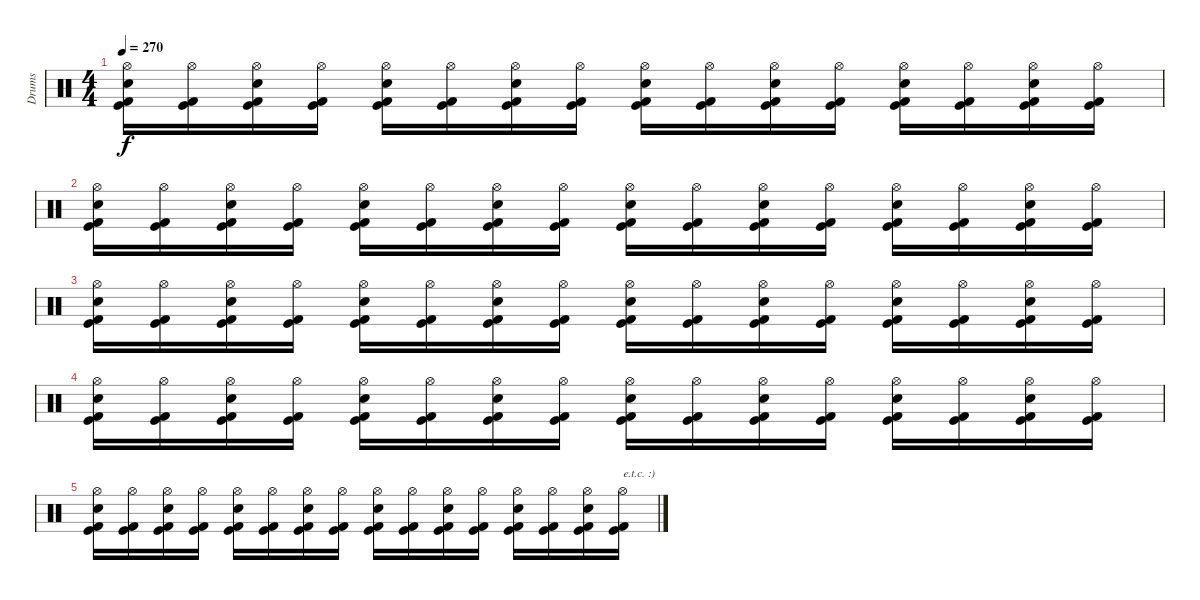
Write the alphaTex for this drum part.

\track ("Drums" "Drums") {instrument percussion}
\staff {score}
\articulation defaults
\ts (4 4)
\tempo 270
\clef neutral
\ks c
("Hi-Hat (open)" "Electric Snare (hit)" "Kick (hit)" "Kick (hit) 2").16{dy f} ("Hi-Hat (open)" "Kick (hit)" "Kick (hit) 2").16 ("Hi-Hat (open)" "Electric Snare (hit)" "Kick (hit)" "Kick (hit) 2").16 ("Hi-Hat (open)" "Kick (hit)" "Kick (hit) 2").16 ("Hi-Hat (open)" "Electric Snare (hit)" "Kick (hit)" "Kick (hit) 2").16 ("Hi-Hat (open)" "Kick (hit)" "Kick (hit) 2").16 ("Hi-Hat (open)" "Electric Snare (hit)" "Kick (hit)" "Kick (hit) 2").16 ("Hi-Hat (open)" "Kick (hit)" "Kick (hit) 2").16 ("Hi-Hat (open)" "Electric Snare (hit)" "Kick (hit)" "Kick (hit) 2").16 ("Hi-Hat (open)" "Kick (hit)" "Kick (hit) 2").16 ("Hi-Hat (open)" "Electric Snare (hit)" "Kick (hit)" "Kick (hit) 2").16 ("Hi-Hat (open)" "Kick (hit)" "Kick (hit) 2").16 ("Hi-Hat (open)" "Electric Snare (hit)" "Kick (hit)" "Kick (hit) 2").16 ("Hi-Hat (open)" "Kick (hit)" "Kick (hit) 2").16 ("Hi-Hat (open)" "Electric Snare (hit)" "Kick (hit)" "Kick (hit) 2").16 ("Hi-Hat (open)" "Kick (hit)" "Kick (hit) 2").16 |
("Hi-Hat (open)" "Electric Snare (hit)" "Kick (hit)" "Kick (hit) 2").16 ("Hi-Hat (open)" "Kick (hit)" "Kick (hit) 2").16 ("Hi-Hat (open)" "Electric Snare (hit)" "Kick (hit)" "Kick (hit) 2").16 ("Hi-Hat (open)" "Kick (hit)" "Kick (hit) 2").16 ("Hi-Hat (open)" "Electric Snare (hit)" "Kick (hit)" "Kick (hit) 2").16 ("Hi-Hat (open)" "Kick (hit)" "Kick (hit) 2").16 ("Hi-Hat (open)" "Electric Snare (hit)" "Kick (hit)" "Kick (hit) 2").16 ("Hi-Hat (open)" "Kick (hit)" "Kick (hit) 2").16 ("Hi-Hat (open)" "Electric Snare (hit)" "Kick (hit)" "Kick (hit) 2").16 ("Hi-Hat (open)" "Kick (hit)" "Kick (hit) 2").16 ("Hi-Hat (open)" "Electric Snare (hit)" "Kick (hit)" "Kick (hit) 2").16 ("Hi-Hat (open)" "Kick (hit)" "Kick (hit) 2").16 ("Hi-Hat (open)" "Electric Snare (hit)" "Kick (hit)" "Kick (hit) 2").16 ("Hi-Hat (open)" "Kick (hit)" "Kick (hit) 2").16 ("Hi-Hat (open)" "Electric Snare (hit)" "Kick (hit)" "Kick (hit) 2").16 ("Hi-Hat (open)" "Kick (hit)" "Kick (hit) 2").16 |
("Hi-Hat (open)" "Electric Snare (hit)" "Kick (hit)" "Kick (hit) 2").16 ("Hi-Hat (open)" "Kick (hit)" "Kick (hit) 2").16 ("Hi-Hat (open)" "Electric Snare (hit)" "Kick (hit)" "Kick (hit) 2").16 ("Hi-Hat (open)" "Kick (hit)" "Kick (hit) 2").16 ("Hi-Hat (open)" "Electric Snare (hit)" "Kick (hit)" "Kick (hit) 2").16 ("Hi-Hat (open)" "Kick (hit)" "Kick (hit) 2").16 ("Hi-Hat (open)" "Electric Snare (hit)" "Kick (hit)" "Kick (hit) 2").16 ("Hi-Hat (open)" "Kick (hit)" "Kick (hit) 2").16 ("Hi-Hat (open)" "Electric Snare (hit)" "Kick (hit)" "Kick (hit) 2").16 ("Hi-Hat (open)" "Kick (hit)" "Kick (hit) 2").16 ("Hi-Hat (open)" "Electric Snare (hit)" "Kick (hit)" "Kick (hit) 2").16 ("Hi-Hat (open)" "Kick (hit)" "Kick (hit) 2").16 ("Hi-Hat (open)" "Electric Snare (hit)" "Kick (hit)" "Kick (hit) 2").16 ("Hi-Hat (open)" "Kick (hit)" "Kick (hit) 2").16 ("Hi-Hat (open)" "Electric Snare (hit)" "Kick (hit)" "Kick (hit) 2").16 ("Hi-Hat (open)" "Kick (hit)" "Kick (hit) 2").16 |
("Hi-Hat (open)" "Electric Snare (hit)" "Kick (hit)" "Kick (hit) 2").16 ("Hi-Hat (open)" "Kick (hit)" "Kick (hit) 2").16 ("Hi-Hat (open)" "Electric Snare (hit)" "Kick (hit)" "Kick (hit) 2").16 ("Hi-Hat (open)" "Kick (hit)" "Kick (hit) 2").16 ("Hi-Hat (open)" "Electric Snare (hit)" "Kick (hit)" "Kick (hit) 2").16 ("Hi-Hat (open)" "Kick (hit)" "Kick (hit) 2").16 ("Hi-Hat (open)" "Electric Snare (hit)" "Kick (hit)" "Kick (hit) 2").16 ("Hi-Hat (open)" "Kick (hit)" "Kick (hit) 2").16 ("Hi-Hat (open)" "Electric Snare (hit)" "Kick (hit)" "Kick (hit) 2").16 ("Hi-Hat (open)" "Kick (hit)" "Kick (hit) 2").16 ("Hi-Hat (open)" "Electric Snare (hit)" "Kick (hit)" "Kick (hit) 2").16 ("Hi-Hat (open)" "Kick (hit)" "Kick (hit) 2").16 ("Hi-Hat (open)" "Electric Snare (hit)" "Kick (hit)" "Kick (hit) 2").16 ("Hi-Hat (open)" "Kick (hit)" "Kick (hit) 2").16 ("Hi-Hat (open)" "Electric Snare (hit)" "Kick (hit)" "Kick (hit) 2").16 ("Hi-Hat (open)" "Kick (hit)" "Kick (hit) 2").16 |
("Hi-Hat (open)" "Electric Snare (hit)" "Kick (hit)" "Kick (hit) 2").16 ("Hi-Hat (open)" "Kick (hit)" "Kick (hit) 2").16 ("Hi-Hat (open)" "Electric Snare (hit)" "Kick (hit)" "Kick (hit) 2").16 ("Hi-Hat (open)" "Kick (hit)" "Kick (hit) 2").16 ("Hi-Hat (open)" "Electric Snare (hit)" "Kick (hit)" "Kick (hit) 2").16 ("Hi-Hat (open)" "Kick (hit)" "Kick (hit) 2").16 ("Hi-Hat (open)" "Electric Snare (hit)" "Kick (hit)" "Kick (hit) 2").16 ("Hi-Hat (open)" "Kick (hit)" "Kick (hit) 2").16 ("Hi-Hat (open)" "Electric Snare (hit)" "Kick (hit)" "Kick (hit) 2").16 ("Hi-Hat (open)" "Kick (hit)" "Kick (hit) 2").16 ("Hi-Hat (open)" "Electric Snare (hit)" "Kick (hit)" "Kick (hit) 2").16 ("Hi-Hat (open)" "Kick (hit)" "Kick (hit) 2").16 ("Hi-Hat (open)" "Electric Snare (hit)" "Kick (hit)" "Kick (hit) 2").16 ("Hi-Hat (open)" "Kick (hit)" "Kick (hit) 2").16 ("Hi-Hat (open)" "Electric Snare (hit)" "Kick (hit)" "Kick (hit) 2").16 ("Hi-Hat (open)" "Kick (hit)" "Kick (hit) 2").16{txt "e.t.c. :)"}
